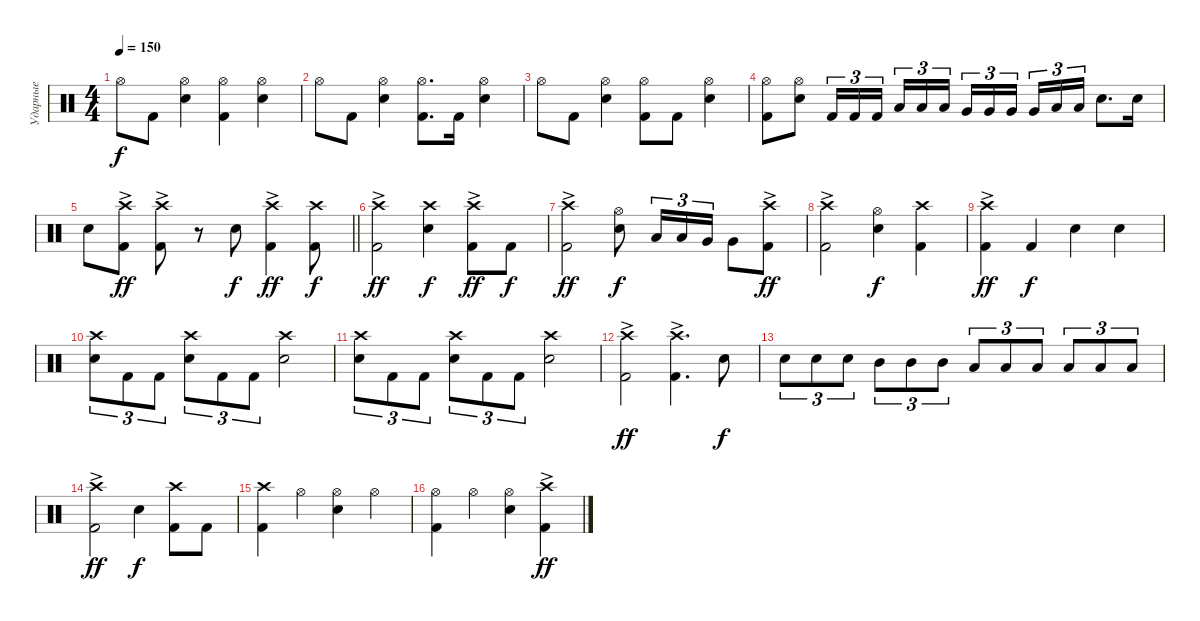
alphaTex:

\track ("Ударные" "Ударные") {instrument percussion}
\staff
\articulation defaults
\ts (4 4)
\tempo 150
\clef neutral
\ks c "Hi-Hat (open)".8{dy f} "Kick (hit) 2".8
("Snare (hit) 2" "Hi-Hat (open)").4 ("Kick (hit) 2" "Hi-Hat (open)").4 ("Snare (hit) 2" "Hi-Hat (open)").4 |
"Hi-Hat (open)".8 "Kick (hit) 2".8 ("Snare (hit) 2" "Hi-Hat (open)").4 ("Kick (hit) 2" "Hi-Hat (open)").8{d} "Kick (hit) 2".16 ("Snare (hit) 2" "Hi-Hat (open)").4 |
"Hi-Hat (open)".8 "Kick (hit) 2".8 ("Snare (hit) 2" "Hi-Hat (open)").4 ("Kick (hit) 2" "Hi-Hat (open)").8 "Kick (hit) 2".8 ("Snare (hit) 2" "Hi-Hat (open)").4 |
("Kick (hit) 2" "Hi-Hat (open)").8 ("Snare (hit) 2" "Hi-Hat (open)").8 "Kick (hit) 2".16{tu (3 2)} "Kick (hit) 2".16{tu (3 2)} "Kick (hit) 2".16{tu (3 2) beam splitsecondary} "Low Tom (hit)".16{tu (3 2)} "Low Tom (hit)".16{tu (3 2)} "Low Tom (hit)".16{tu (3 2)} "Very Low Tom (hit)".16{tu (3 2)} "Very Low Tom (hit)".16{tu (3 2)} "Very Low Tom (hit)".16{tu (3 2) beam splitsecondary} "Very Low Tom (hit)".16{tu (3 2)} "Low Floor Tom (hit)".16{tu (3 2)} "Low Floor Tom (hit)".16{tu (3 2)} "Snare (hit) 2".8{d} "Snare (hit) 2".16 |
\barLineRight lightlight "Snare (hit) 2".8
("Kick (hit) 2" "Crash high (hit)"{ac}).8{dy ff} ("Kick (hit) 2" "Crash high (hit)"{ac}).8 r.8 "Snare (hit) 2".8{dy f} ("Kick (hit) 2" "Crash high (hit)"{ac}).4{dy ff} ("Kick (hit) 2" "Crash high (hit)").8{dy f} |
("Kick (hit) 2" "Crash high (hit)"{ac}).2{dy ff} ("Snare (hit) 2" "Crash high (hit)").4{dy f} ("Kick (hit) 2" "Crash high (hit)"{ac}).8{dy ff} "Kick (hit) 2".8{dy f} |
("Kick (hit) 2" "Crash high (hit)"{ac}).2{dy ff} ("Snare (hit) 2" "Hi-Hat (open)").8{dy f} "Low Tom (hit)".16{tu (3 2)} "Low Tom (hit)".16{tu (3 2)} "Very Low Tom (hit)".16{tu (3 2)} "Very Low Tom (hit)".8 ("Kick (hit) 2" "Crash high (hit)"{ac}).8{dy ff} |
("Kick (hit) 2" "Crash high (hit)"{ac}).2 ("Snare (hit) 2" "Hi-Hat (open)").4{dy f} ("Kick (hit) 2" "Crash high (hit)").4 |
("Kick (hit) 2" "Crash high (hit)"{ac}).4{dy ff} "Kick (hit) 2".4{dy f} "Snare (hit) 2".4 "Snare (hit) 2".4 |
("Snare (hit) 2" "Crash high (hit)").8{tu (3 2)} "Kick (hit) 2".8{tu (3 2)} "Kick (hit) 2".8{tu (3 2)} ("Snare (hit) 2" "Crash high (hit)").8{tu (3 2)} "Kick (hit) 2".8{tu (3 2)} "Kick (hit) 2".8{tu (3 2)} ("Snare (hit) 2" "Crash high (hit)").2 |
("Snare (hit) 2" "Crash high (hit)").8{tu (3 2)} "Kick (hit) 2".8{tu (3 2)} "Kick (hit) 2".8{tu (3 2)} ("Snare (hit) 2" "Crash high (hit)").8{tu (3 2)} "Kick (hit) 2".8{tu (3 2)} "Kick (hit) 2".8{tu (3 2)} ("Snare (hit) 2" "Crash high (hit)").2 |
("Kick (hit) 2" "Crash high (hit)"{ac}).2{dy ff} ("Kick (hit) 2" "Crash high (hit)"{ac}).4{d} "Snare (hit) 2".8{dy f} |
"Snare (hit) 2".8{tu (3 2)} "Snare (hit) 2".8{tu (3 2)} "Snare (hit) 2".8{tu (3 2)} "Mid Tom (hit)".8{tu (3 2)} "Mid Tom (hit)".8{tu (3 2)} "Mid Tom (hit)".8{tu (3 2)} "Low Tom (hit)".8{tu (3 2)} "Low Tom (hit)".8{tu (3 2)} "Low Tom (hit)".8{tu (3 2)} "Low Floor Tom (hit)".8{tu (3 2)} "Low Floor Tom (hit)".8{tu (3 2)} "Low Floor Tom (hit)".8{tu (3 2)} |
("Kick (hit) 2" "Crash high (hit)"{ac}).2{dy ff} "Snare (hit) 2".4{dy f} ("Kick (hit) 2" "Crash high (hit)").8 "Kick (hit) 2".8 |
("Kick (hit) 2" "Crash high (hit)").4 "Hi-Hat (open)".4 ("Snare (hit) 2" "Hi-Hat (open)").4 "Hi-Hat (open)".4 |
("Kick (hit) 2" "Hi-Hat (open)").4 "Hi-Hat (open)".4 ("Snare (hit) 2" "Hi-Hat (open)").4 ("Kick (hit) 2" "Crash high (hit)"{ac}).4{dy ff}
